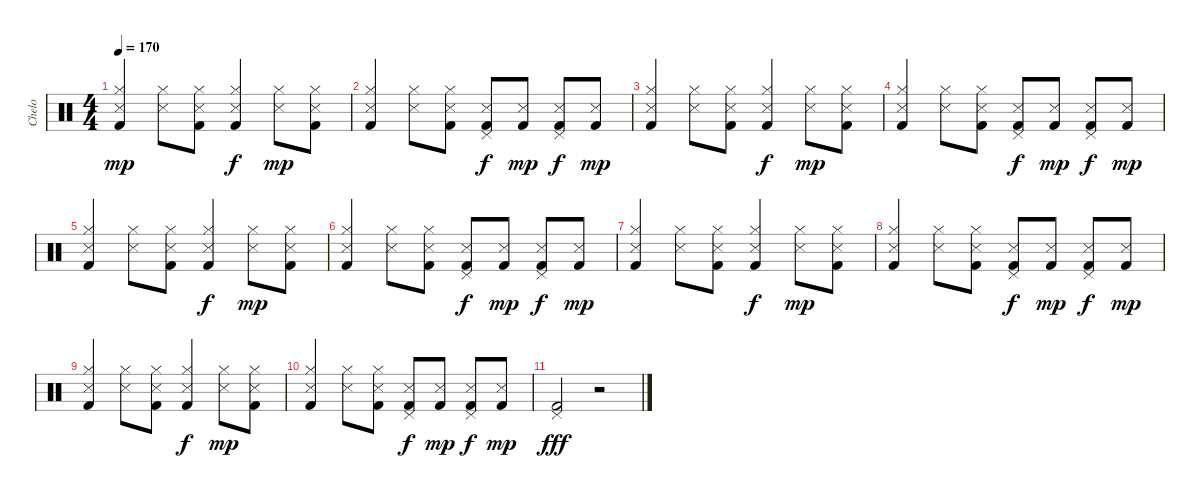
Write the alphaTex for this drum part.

\track ("Chelo" "Chelo") {instrument percussion}
\staff {score}
\articulation defaults
\ts (4 4)
\tempo 170
\clef neutral
\ks c
("Kick (hit) 2" "Hi-Hat (closed)" "Snare (side stick) 3").4{dy mp} ("Snare (side stick) 3" "Hi-Hat (closed)").8 ("Kick (hit) 2" "Hi-Hat (closed)" "Snare (side stick) 3").8 ("Kick (hit) 2" "Hi-Hat (closed)" "Snare (side stick) 3").4{dy f} ("Snare (side stick) 3" "Hi-Hat (closed)").8{dy mp} ("Kick (hit) 2" "Hi-Hat (closed)" "Snare (side stick) 3").8 |
("Kick (hit) 2" "Hi-Hat (closed)" "Snare (side stick) 3").4 ("Snare (side stick) 3" "Hi-Hat (closed)").8 ("Kick (hit) 2" "Hi-Hat (closed)" "Snare (side stick) 3").8 ("Kick (hit) 2" "Pedal Hi-Hat (hit)" "Snare (side stick) 3").8{dy f} ("Kick (hit) 2" "Snare (side stick) 3").8{dy mp} ("Kick (hit) 2" "Pedal Hi-Hat (hit)" "Snare (side stick) 3").8{dy f} ("Kick (hit) 2" "Snare (side stick) 3").8{dy mp} |
("Kick (hit) 2" "Hi-Hat (closed)" "Snare (side stick) 3").4 ("Snare (side stick) 3" "Hi-Hat (closed)").8 ("Kick (hit) 2" "Hi-Hat (closed)" "Snare (side stick) 3").8 ("Kick (hit) 2" "Hi-Hat (closed)" "Snare (side stick) 3").4{dy f} ("Snare (side stick) 3" "Hi-Hat (closed)").8{dy mp} ("Kick (hit) 2" "Hi-Hat (closed)" "Snare (side stick) 3").8 |
("Kick (hit) 2" "Hi-Hat (closed)" "Snare (side stick) 3").4 ("Snare (side stick) 3" "Hi-Hat (closed)").8 ("Kick (hit) 2" "Hi-Hat (closed)" "Snare (side stick) 3").8 ("Kick (hit) 2" "Pedal Hi-Hat (hit)" "Snare (side stick) 3").8{dy f} ("Kick (hit) 2" "Snare (side stick) 3").8{dy mp} ("Kick (hit) 2" "Pedal Hi-Hat (hit)" "Snare (side stick) 3").8{dy f} ("Kick (hit) 2" "Snare (side stick) 3").8{dy mp} |
("Kick (hit) 2" "Hi-Hat (closed)" "Snare (side stick) 3").4 ("Snare (side stick) 3" "Hi-Hat (closed)").8 ("Kick (hit) 2" "Hi-Hat (closed)" "Snare (side stick) 3").8 ("Kick (hit) 2" "Hi-Hat (closed)" "Snare (side stick) 3").4{dy f} ("Snare (side stick) 3" "Hi-Hat (closed)").8{dy mp} ("Kick (hit) 2" "Hi-Hat (closed)" "Snare (side stick) 3").8 |
("Kick (hit) 2" "Hi-Hat (closed)" "Snare (side stick) 3").4 ("Snare (side stick) 3" "Hi-Hat (closed)").8 ("Kick (hit) 2" "Hi-Hat (closed)" "Snare (side stick) 3").8 ("Kick (hit) 2" "Pedal Hi-Hat (hit)" "Snare (side stick) 3").8{dy f} ("Kick (hit) 2" "Snare (side stick) 3").8{dy mp} ("Kick (hit) 2" "Pedal Hi-Hat (hit)" "Snare (side stick) 3").8{dy f} ("Kick (hit) 2" "Snare (side stick) 3").8{dy mp} |
("Kick (hit) 2" "Hi-Hat (closed)" "Snare (side stick) 3").4 ("Snare (side stick) 3" "Hi-Hat (closed)").8 ("Kick (hit) 2" "Hi-Hat (closed)" "Snare (side stick) 3").8 ("Kick (hit) 2" "Hi-Hat (closed)" "Snare (side stick) 3").4{dy f} ("Snare (side stick) 3" "Hi-Hat (closed)").8{dy mp} ("Kick (hit) 2" "Hi-Hat (closed)" "Snare (side stick) 3").8 |
("Kick (hit) 2" "Hi-Hat (closed)" "Snare (side stick) 3").4 ("Snare (side stick) 3" "Hi-Hat (closed)").8 ("Kick (hit) 2" "Hi-Hat (closed)" "Snare (side stick) 3").8 ("Kick (hit) 2" "Pedal Hi-Hat (hit)" "Snare (side stick) 3").8{dy f} ("Kick (hit) 2" "Snare (side stick) 3").8{dy mp} ("Kick (hit) 2" "Pedal Hi-Hat (hit)" "Snare (side stick) 3").8{dy f} ("Kick (hit) 2" "Snare (side stick) 3").8{dy mp} |
("Kick (hit) 2" "Hi-Hat (closed)" "Snare (side stick) 3").4 ("Snare (side stick) 3" "Hi-Hat (closed)").8 ("Kick (hit) 2" "Hi-Hat (closed)" "Snare (side stick) 3").8 ("Kick (hit) 2" "Hi-Hat (closed)" "Snare (side stick) 3").4{dy f} ("Snare (side stick) 3" "Hi-Hat (closed)").8{dy mp} ("Kick (hit) 2" "Hi-Hat (closed)" "Snare (side stick) 3").8 |
("Kick (hit) 2" "Hi-Hat (closed)" "Snare (side stick) 3").4 ("Snare (side stick) 3" "Hi-Hat (closed)").8 ("Kick (hit) 2" "Hi-Hat (closed)" "Snare (side stick) 3").8 ("Kick (hit) 2" "Pedal Hi-Hat (hit)" "Snare (side stick) 3").8{dy f} ("Kick (hit) 2" "Snare (side stick) 3").8{dy mp} ("Kick (hit) 2" "Pedal Hi-Hat (hit)" "Snare (side stick) 3").8{dy f} ("Kick (hit) 2" "Snare (side stick) 3").8{dy mp} |
("Kick (hit) 2" "Pedal Hi-Hat (hit)").2{dy fff} r.2
